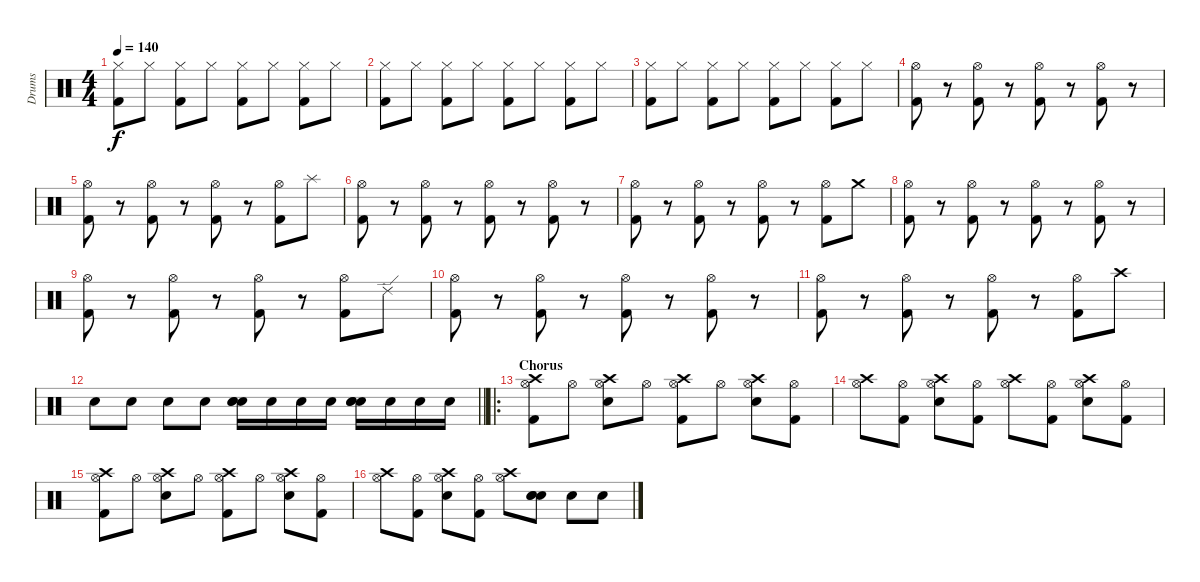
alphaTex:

\track ("Drums" "Drums") {instrument percussion}
\staff {score}
\articulation defaults
\ts (4 4)
\tempo 140
\clef neutral
\ks c
("Hi-Hat (closed)" "Kick (hit) 2").8{dy f} "Hi-Hat (closed)".8 ("Hi-Hat (closed)" "Kick (hit) 2").8 "Hi-Hat (closed)".8 ("Hi-Hat (closed)" "Kick (hit) 2").8 "Hi-Hat (closed)".8 ("Hi-Hat (closed)" "Kick (hit) 2").8 "Hi-Hat (closed)".8 |
("Hi-Hat (closed)" "Kick (hit) 2").8 "Hi-Hat (closed)".8 ("Hi-Hat (closed)" "Kick (hit) 2").8 "Hi-Hat (closed)".8 ("Hi-Hat (closed)" "Kick (hit) 2").8 "Hi-Hat (closed)".8 ("Hi-Hat (closed)" "Kick (hit) 2").8 "Hi-Hat (closed)".8 |
("Hi-Hat (closed)" "Kick (hit) 2").8 "Hi-Hat (closed)".8 ("Hi-Hat (closed)" "Kick (hit) 2").8 "Hi-Hat (closed)".8 ("Hi-Hat (closed)" "Kick (hit) 2").8 "Hi-Hat (closed)".8 ("Hi-Hat (closed)" "Kick (hit) 2").8 "Hi-Hat (closed)".8 |
("Hi-Hat (open)" "Kick (hit) 2").8 r.8 ("Hi-Hat (open)" "Kick (hit) 2").8 r.8 ("Hi-Hat (open)" "Kick (hit) 2").8 r.8 ("Hi-Hat (open)" "Kick (hit) 2").8 r.8 |
("Hi-Hat (open)" "Kick (hit) 2").8 r.8 ("Hi-Hat (open)" "Kick (hit) 2").8 r.8 ("Hi-Hat (open)" "Kick (hit) 2").8 r.8 ("Hi-Hat (open)" "Kick (hit) 2").8 "Splash (hit)".8 |
("Hi-Hat (open)" "Kick (hit) 2").8 r.8 ("Hi-Hat (open)" "Kick (hit) 2").8 r.8 ("Hi-Hat (open)" "Kick (hit) 2").8 r.8 ("Hi-Hat (open)" "Kick (hit) 2").8 r.8 |
("Hi-Hat (open)" "Kick (hit) 2").8 r.8 ("Hi-Hat (open)" "Kick (hit) 2").8 r.8 ("Hi-Hat (open)" "Kick (hit) 2").8 r.8 ("Hi-Hat (open)" "Kick (hit) 2").8 "Crash medium (hit)".8 |
("Hi-Hat (open)" "Kick (hit) 2").8 r.8 ("Hi-Hat (open)" "Kick (hit) 2").8 r.8 ("Hi-Hat (open)" "Kick (hit) 2").8 r.8 ("Hi-Hat (open)" "Kick (hit) 2").8 r.8 |
("Hi-Hat (open)" "Kick (hit) 2").8 r.8 ("Hi-Hat (open)" "Kick (hit) 2").8 r.8 ("Hi-Hat (open)" "Kick (hit) 2").8 r.8 ("Hi-Hat (open)" "Kick (hit) 2").8 "Ride (edge) 2".8 |
("Hi-Hat (open)" "Kick (hit) 2").8 r.8 ("Hi-Hat (open)" "Kick (hit) 2").8 r.8 ("Hi-Hat (open)" "Kick (hit) 2").8 r.8 ("Hi-Hat (open)" "Kick (hit) 2").8 r.8 |
("Hi-Hat (open)" "Kick (hit) 2").8 r.8 ("Hi-Hat (open)" "Kick (hit) 2").8 r.8 ("Hi-Hat (open)" "Kick (hit) 2").8 r.8 ("Hi-Hat (open)" "Kick (hit) 2").8 "Crash high (hit)".8 |
\barLineRight lightlight "Electric Snare (hit)".8 "Electric Snare (hit)".8 "Electric Snare (hit)".8 "Electric Snare (hit)".8
("Snare (hit) 2" "Electric Snare (hit)" "Snare (hit) 2").16 "Electric Snare (hit)".16 "Electric Snare (hit)".16 "Electric Snare (hit)".16 ("Snare (hit) 2" "Snare (hit) 2" "Electric Snare (hit)").16 "Electric Snare (hit)".16 "Electric Snare (hit)".16 "Electric Snare (hit)".16 |
\ro
\section ("" "Chorus")
("Crash high (hit)" "Hi-Hat (open)" "Kick (hit) 2").8 "Hi-Hat (open)".8 ("Crash high (hit)" "Hi-Hat (open)" "Electric Snare (hit)").8 "Hi-Hat (open)".8 ("Crash high (hit)" "Hi-Hat (open)" "Kick (hit) 2").8 "Hi-Hat (open)".8 ("Crash high (hit)" "Hi-Hat (open)" "Electric Snare (hit)").8 ("Hi-Hat (open)" "Kick (hit) 2").8 |
("Crash high (hit)" "Hi-Hat (open)").8 ("Hi-Hat (open)" "Kick (hit) 2").8 ("Crash high (hit)" "Hi-Hat (open)" "Electric Snare (hit)").8 ("Hi-Hat (open)" "Kick (hit) 2").8 ("Crash high (hit)" "Hi-Hat (open)").8 ("Hi-Hat (open)" "Kick (hit) 2").8 ("Crash high (hit)" "Hi-Hat (open)" "Electric Snare (hit)").8 ("Hi-Hat (open)" "Kick (hit) 2").8 |
("Crash high (hit)" "Hi-Hat (open)" "Kick (hit) 2").8 "Hi-Hat (open)".8 ("Crash high (hit)" "Hi-Hat (open)" "Electric Snare (hit)").8 "Hi-Hat (open)".8 ("Crash high (hit)" "Hi-Hat (open)" "Kick (hit) 2").8 "Hi-Hat (open)".8 ("Crash high (hit)" "Hi-Hat (open)" "Electric Snare (hit)").8 ("Hi-Hat (open)" "Kick (hit) 2").8 |
("Crash high (hit)" "Hi-Hat (open)").8 ("Hi-Hat (open)" "Kick (hit) 2").8 ("Crash high (hit)" "Hi-Hat (open)" "Electric Snare (hit)").8 ("Hi-Hat (open)" "Kick (hit) 2").8 ("Crash high (hit)" "Hi-Hat (open)").8 ("Snare (hit) 2" "Electric Snare (hit)" "Snare (hit) 2").8 "Electric Snare (hit)".8 "Electric Snare (hit)".8
